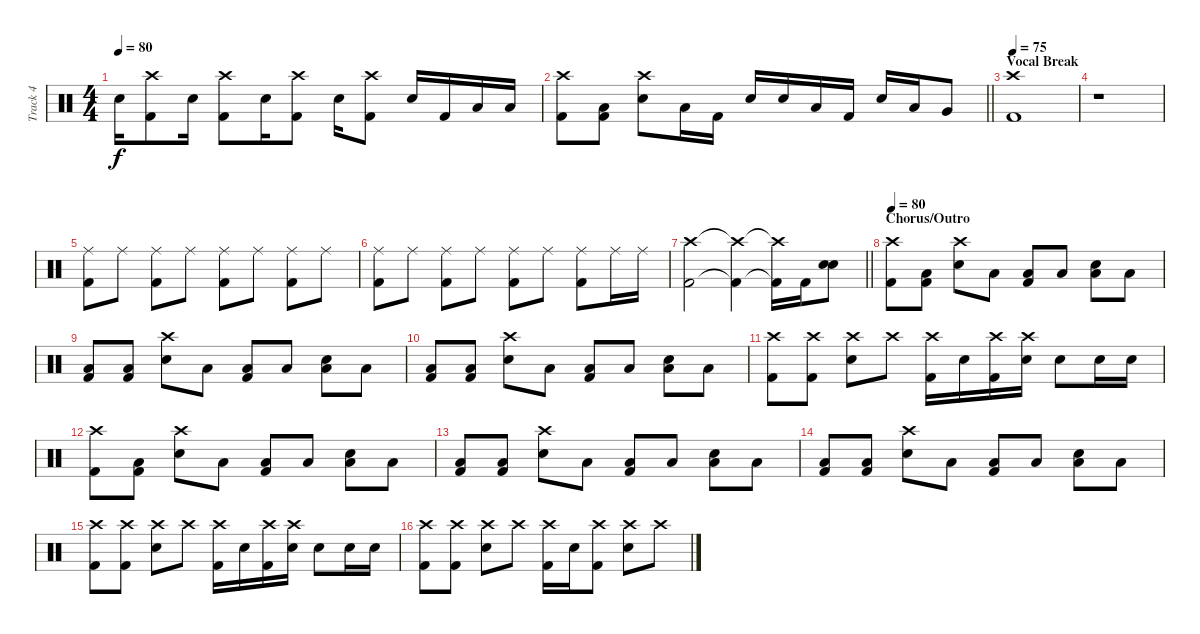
\track ("Track 4" "Track 4") {instrument percussion}
\staff {score}
\articulation defaults
\ts (4 4)
\tempo 80
\clef neutral
\ks c "Snare (hit) 2".16{dy f}
("Crash high (hit)" "Kick (hit) 2").8 "Snare (hit) 2".16 ("Crash high (hit)" "Kick (hit) 2").8 "Snare (hit) 2".16 ("Crash high (hit)" "Kick (hit) 2").8 "Snare (hit) 2".16 ("Crash high (hit)" "Kick (hit) 2").8 "Snare (hit) 2".16 "Kick (hit) 2".16 "Low Floor Tom (hit)".16 "Low Floor Tom (hit)".16 |
\barLineRight lightlight
("Crash high (hit)" "Kick (hit) 2").8 ("Low Tom (hit)" "Kick (hit) 2").8 ("Crash high (hit)" "Snare (hit) 2").8 "Low Tom (hit)".16 "Kick (hit) 2".16 "Snare (hit) 2".16 "Snare (hit) 2".16 "Low Tom (hit)".16 "Kick (hit) 2".16 "Snare (hit) 2".16 "Low Floor Tom (hit)".16 "Very Low Tom (hit)".8 |
\section ("" "Vocal Break")
\tempo 75
("Crash high (hit)" "Kick (hit) 2").1 |
r.1 |
("Ride (middle)" "Kick (hit) 2").8 "Ride (middle)".8 ("Ride (middle)" "Kick (hit) 2").8 "Ride (middle)".8 ("Ride (middle)" "Kick (hit) 2").8 "Ride (middle)".8 ("Ride (middle)" "Kick (hit) 2").8 "Ride (middle)".8 |
("Ride (middle)" "Kick (hit) 2").8 "Ride (middle)".8 ("Ride (middle)" "Kick (hit) 2").8 "Ride (middle)".8 ("Ride (middle)" "Kick (hit) 2").8 "Ride (middle)".8 ("Ride (middle)" "Kick (hit) 2").8 "Ride (middle)".16 "Ride (middle)".16 |
\barLineRight lightlight
("Crash high (hit)" "Kick (hit) 2").2 ("Crash high (hit)"{t} "Kick (hit) 2"{t}).4 ("Crash high (hit)"{t} "Kick (hit) 2"{t}).16 "Kick (hit) 2".16 ("Electric Snare (hit)" "Snare (hit) 2").8 |
\section ("" "Chorus/Outro")
\tempo 80
("Crash high (hit)" "Kick (hit) 2").8 ("Low Tom (hit)" "Kick (hit) 2").8 ("Crash high (hit)" "Snare (hit) 2").8 "Low Tom (hit)".8 ("Low Tom (hit)" "Kick (hit) 2").8 "Low Tom (hit)".8 ("Low Tom (hit)" "Snare (hit) 2").8 "Low Tom (hit)".8 |
("Low Tom (hit)" "Kick (hit) 2").8 ("Low Tom (hit)" "Kick (hit) 2").8 ("Crash high (hit)" "Snare (hit) 2").8 "Low Tom (hit)".8 ("Low Tom (hit)" "Kick (hit) 2").8 "Low Tom (hit)".8 ("Low Tom (hit)" "Snare (hit) 2").8 "Low Tom (hit)".8 |
("Low Tom (hit)" "Kick (hit) 2").8 ("Low Tom (hit)" "Kick (hit) 2").8 ("Crash high (hit)" "Snare (hit) 2").8 "Low Tom (hit)".8 ("Low Tom (hit)" "Kick (hit) 2").8 "Low Tom (hit)".8 ("Low Tom (hit)" "Snare (hit) 2").8 "Low Tom (hit)".8 |
("Crash high (hit)" "Kick (hit) 2").8 ("Crash high (hit)" "Kick (hit) 2").8 ("Crash high (hit)" "Snare (hit) 2").8 "Crash high (hit)".8 ("Crash high (hit)" "Kick (hit) 2").16 "Snare (hit) 2".16 ("Crash high (hit)" "Kick (hit) 2").16 ("Crash high (hit)" "Snare (hit) 2").16 "Snare (hit) 2".8 "Snare (hit) 2".16 "Snare (hit) 2".16 |
("Crash high (hit)" "Kick (hit) 2").8 ("Low Tom (hit)" "Kick (hit) 2").8 ("Crash high (hit)" "Snare (hit) 2").8 "Low Tom (hit)".8 ("Low Tom (hit)" "Kick (hit) 2").8 "Low Tom (hit)".8 ("Low Tom (hit)" "Snare (hit) 2").8 "Low Tom (hit)".8 |
("Low Tom (hit)" "Kick (hit) 2").8 ("Low Tom (hit)" "Kick (hit) 2").8 ("Crash high (hit)" "Snare (hit) 2").8 "Low Tom (hit)".8 ("Low Tom (hit)" "Kick (hit) 2").8 "Low Tom (hit)".8 ("Low Tom (hit)" "Snare (hit) 2").8 "Low Tom (hit)".8 |
("Low Tom (hit)" "Kick (hit) 2").8 ("Low Tom (hit)" "Kick (hit) 2").8 ("Crash high (hit)" "Snare (hit) 2").8 "Low Tom (hit)".8 ("Low Tom (hit)" "Kick (hit) 2").8 "Low Tom (hit)".8 ("Low Tom (hit)" "Snare (hit) 2").8 "Low Tom (hit)".8 |
("Crash high (hit)" "Kick (hit) 2").8 ("Crash high (hit)" "Kick (hit) 2").8 ("Crash high (hit)" "Snare (hit) 2").8 "Crash high (hit)".8 ("Crash high (hit)" "Kick (hit) 2").16 "Snare (hit) 2".16 ("Crash high (hit)" "Kick (hit) 2").16 ("Crash high (hit)" "Snare (hit) 2").16 "Snare (hit) 2".8 "Snare (hit) 2".16 "Snare (hit) 2".16 |
("Crash high (hit)" "Kick (hit) 2").8 ("Crash high (hit)" "Kick (hit) 2").8 ("Crash high (hit)" "Snare (hit) 2").8 "Crash high (hit)".8 ("Crash high (hit)" "Kick (hit) 2").16 "Snare (hit) 2".16 ("Crash high (hit)" "Kick (hit) 2").8 ("Crash high (hit)" "Snare (hit) 2").8 "Crash high (hit)".8
